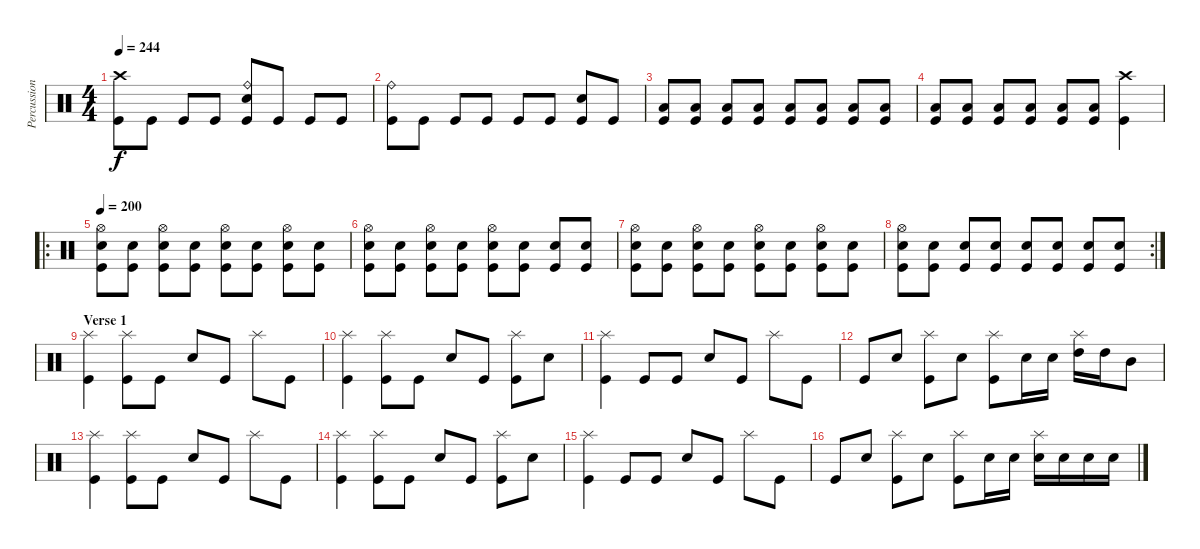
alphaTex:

\track ("Percussion" "Percussion") {instrument percussion}
\staff {score}
\articulation defaults
\ts (4 4)
\tempo 244
\clef neutral
\ks c
("Crash high (hit)" "Kick (hit)").8{dy f} "Kick (hit)".8 "Kick (hit)".8 "Kick (hit)".8 ("Ride (bell)" "Snare (hit) 2" "Kick (hit)").8 "Kick (hit)".8 "Kick (hit)".8 "Kick (hit)".8 |
("Ride (bell)" "Kick (hit)").8 "Kick (hit)".8 "Kick (hit)".8 "Kick (hit)".8 "Kick (hit)".8 "Kick (hit)".8 ("Snare (hit) 2" "Kick (hit)").8 "Kick (hit)".8 |
("Low Tom (hit)" "Kick (hit)").8 ("Low Tom (hit)" "Kick (hit)").8 ("Low Tom (hit)" "Kick (hit)").8 ("Low Tom (hit)" "Kick (hit)").8 ("Low Tom (hit)" "Kick (hit)").8 ("Low Tom (hit)" "Kick (hit)").8 ("Low Tom (hit)" "Kick (hit)").8 ("Low Tom (hit)" "Kick (hit)").8 |
("Low Tom (hit)" "Kick (hit)").8 ("Low Tom (hit)" "Kick (hit)").8 ("Low Tom (hit)" "Kick (hit)").8 ("Low Tom (hit)" "Kick (hit)").8 ("Low Tom (hit)" "Kick (hit)").8 ("Low Tom (hit)" "Kick (hit)").8 ("Crash high (hit)" "Kick (hit)").4 |
\ro
\tempo 200
("Snare (hit) 2" "Hi-Hat (open)" "Kick (hit)").8 ("Snare (hit) 2" "Kick (hit)").8 ("Snare (hit) 2" "Hi-Hat (open)" "Kick (hit)").8 ("Snare (hit) 2" "Kick (hit)").8 ("Snare (hit) 2" "Hi-Hat (open)" "Kick (hit)").8 ("Snare (hit) 2" "Kick (hit)").8 ("Snare (hit) 2" "Hi-Hat (open)" "Kick (hit)").8 ("Snare (hit) 2" "Kick (hit)").8 |
("Snare (hit) 2" "Hi-Hat (open)" "Kick (hit)").8 ("Snare (hit) 2" "Kick (hit)").8 ("Snare (hit) 2" "Hi-Hat (open)" "Kick (hit)").8 ("Snare (hit) 2" "Kick (hit)").8 ("Snare (hit) 2" "Hi-Hat (open)" "Kick (hit)").8 ("Snare (hit) 2" "Kick (hit)").8 ("Snare (hit) 2" "Kick (hit)").8 ("Snare (hit) 2" "Kick (hit)").8 |
("Snare (hit) 2" "Hi-Hat (open)" "Kick (hit)").8 ("Snare (hit) 2" "Kick (hit)").8 ("Snare (hit) 2" "Hi-Hat (open)" "Kick (hit)").8 ("Snare (hit) 2" "Kick (hit)").8 ("Snare (hit) 2" "Hi-Hat (open)" "Kick (hit)").8 ("Snare (hit) 2" "Kick (hit)").8 ("Snare (hit) 2" "Hi-Hat (open)" "Kick (hit)").8 ("Snare (hit) 2" "Kick (hit)").8 |
\rc 2
("Snare (hit) 2" "Hi-Hat (open)" "Kick (hit)").8 ("Snare (hit) 2" "Kick (hit)").8 ("Snare (hit) 2" "Kick (hit)").8 ("Snare (hit) 2" "Kick (hit)").8 ("Snare (hit) 2" "Kick (hit)").8 ("Snare (hit) 2" "Kick (hit)").8 ("Snare (hit) 2" "Kick (hit)").8 ("Snare (hit) 2" "Kick (hit)").8 |
\section ("" "Verse 1")
("Splash (hit)" "Kick (hit)").4 ("Splash (hit)" "Kick (hit)").8 "Kick (hit)".8 "Snare (hit) 2".8 "Kick (hit)".8 "Splash (hit)".8 "Kick (hit)".8 |
("Splash (hit)" "Kick (hit)").4 ("Splash (hit)" "Kick (hit)").8 "Kick (hit)".8 "Snare (hit) 2".8 "Kick (hit)".8 ("Splash (hit)" "Kick (hit)").8 "Snare (hit) 2".8 |
("Splash (hit)" "Kick (hit)").4 "Kick (hit)".8 "Kick (hit)".8 "Snare (hit) 2".8 "Kick (hit)".8 "Splash (hit)".8 "Kick (hit)".8 |
"Kick (hit)".8 "Snare (hit) 2".8 ("Splash (hit)" "Kick (hit)").8 "Snare (hit) 2".8 ("Splash (hit)" "Kick (hit)").8 "Snare (hit) 2".16 "Snare (hit) 2".16 ("Splash (hit)" "High Tom (hit)").16 "High Tom (hit)".16 "Mid Tom (hit)".8 |
("Splash (hit)" "Kick (hit)").4 ("Splash (hit)" "Kick (hit)").8 "Kick (hit)".8 "Snare (hit) 2".8 "Kick (hit)".8 "Splash (hit)".8 "Kick (hit)".8 |
("Splash (hit)" "Kick (hit)").4 ("Splash (hit)" "Kick (hit)").8 "Kick (hit)".8 "Snare (hit) 2".8 "Kick (hit)".8 ("Splash (hit)" "Kick (hit)").8 "Snare (hit) 2".8 |
("Splash (hit)" "Kick (hit)").4 "Kick (hit)".8 "Kick (hit)".8 "Snare (hit) 2".8 "Kick (hit)".8 "Splash (hit)".8 "Kick (hit)".8 |
"Kick (hit)".8 "Snare (hit) 2".8 ("Splash (hit)" "Kick (hit)").8 "Snare (hit) 2".8 ("Splash (hit)" "Kick (hit)").8 "Snare (hit) 2".16 "Snare (hit) 2".16 ("Splash (hit)" "Snare (hit) 2").16 "Snare (hit) 2".16 "Snare (hit) 2".16 "Snare (hit) 2".16
